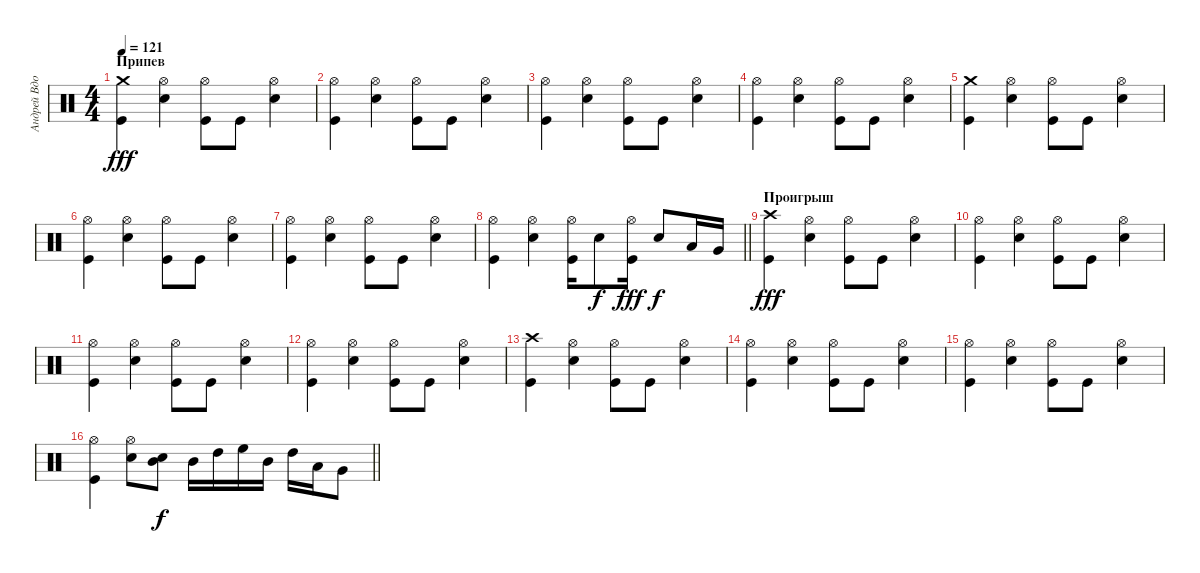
\track ("Андрей Вдовиченко" "Андрей Вдо") {instrument percussion}
\staff {score}
\articulation defaults
\ts (4 4)
\section ("" "Припев")
\tempo 121
\clef neutral
\ks c
("Crash medium (hit)" "Kick (hit)").4{dy fff} ("Hi-Hat (open)" "Electric Snare (hit)").4 ("Hi-Hat (open)" "Kick (hit)").8 "Kick (hit)".8 ("Hi-Hat (open)" "Electric Snare (hit)").4 |
("Hi-Hat (open)" "Kick (hit)").4 ("Hi-Hat (open)" "Electric Snare (hit)").4 ("Hi-Hat (open)" "Kick (hit)").8 "Kick (hit)".8 ("Hi-Hat (open)" "Electric Snare (hit)").4 |
("Hi-Hat (open)" "Kick (hit)").4 ("Hi-Hat (open)" "Electric Snare (hit)").4 ("Hi-Hat (open)" "Kick (hit)").8 "Kick (hit)".8 ("Hi-Hat (open)" "Electric Snare (hit)").4 |
("Hi-Hat (open)" "Kick (hit)").4 ("Hi-Hat (open)" "Electric Snare (hit)").4 ("Hi-Hat (open)" "Kick (hit)").8 "Kick (hit)".8 ("Hi-Hat (open)" "Electric Snare (hit)").4 |
("Crash medium (hit)" "Kick (hit)").4 ("Hi-Hat (open)" "Electric Snare (hit)").4 ("Hi-Hat (open)" "Kick (hit)").8 "Kick (hit)".8 ("Hi-Hat (open)" "Electric Snare (hit)").4 |
("Hi-Hat (open)" "Kick (hit)").4 ("Hi-Hat (open)" "Electric Snare (hit)").4 ("Hi-Hat (open)" "Kick (hit)").8 "Kick (hit)".8 ("Hi-Hat (open)" "Electric Snare (hit)").4 |
("Hi-Hat (open)" "Kick (hit)").4 ("Hi-Hat (open)" "Electric Snare (hit)").4 ("Hi-Hat (open)" "Kick (hit)").8 "Kick (hit)".8 ("Hi-Hat (open)" "Electric Snare (hit)").4 |
\barLineRight lightlight
("Hi-Hat (open)" "Kick (hit)").4 ("Hi-Hat (open)" "Electric Snare (hit)").4 ("Hi-Hat (open)" "Kick (hit)").16 "Electric Snare (hit)".8{dy f} ("Hi-Hat (open)" "Kick (hit)").16{dy fff} "Electric Snare (hit)".8{dy f} "Low Tom (hit)".16 "Very Low Tom (hit)".16 |
\section ("" "Проигрыш")
("Crash high (hit)" "Kick (hit)").4{dy fff} ("Hi-Hat (open)" "Electric Snare (hit)").4 ("Hi-Hat (open)" "Kick (hit)").8 "Kick (hit)".8 ("Hi-Hat (open)" "Electric Snare (hit)").4 |
("Hi-Hat (open)" "Kick (hit)").4 ("Hi-Hat (open)" "Electric Snare (hit)").4 ("Hi-Hat (open)" "Kick (hit)").8 "Kick (hit)".8 ("Hi-Hat (open)" "Electric Snare (hit)").4 |
("Hi-Hat (open)" "Kick (hit)").4 ("Hi-Hat (open)" "Electric Snare (hit)").4 ("Hi-Hat (open)" "Kick (hit)").8 "Kick (hit)".8 ("Hi-Hat (open)" "Electric Snare (hit)").4 |
("Hi-Hat (open)" "Kick (hit)").4 ("Hi-Hat (open)" "Electric Snare (hit)").4 ("Hi-Hat (open)" "Kick (hit)").8 "Kick (hit)".8 ("Hi-Hat (open)" "Electric Snare (hit)").4 |
("Crash high (hit)" "Kick (hit)").4 ("Hi-Hat (open)" "Electric Snare (hit)").4 ("Hi-Hat (open)" "Kick (hit)").8 "Kick (hit)".8 ("Hi-Hat (open)" "Electric Snare (hit)").4 |
("Hi-Hat (open)" "Kick (hit)").4 ("Hi-Hat (open)" "Electric Snare (hit)").4 ("Hi-Hat (open)" "Kick (hit)").8 "Kick (hit)".8 ("Hi-Hat (open)" "Electric Snare (hit)").4 |
("Hi-Hat (open)" "Kick (hit)").4 ("Hi-Hat (open)" "Electric Snare (hit)").4 ("Hi-Hat (open)" "Kick (hit)").8 "Kick (hit)".8 ("Hi-Hat (open)" "Electric Snare (hit)").4 |
\barLineRight lightlight
("Hi-Hat (open)" "Kick (hit)").4 ("Hi-Hat (open)" "Electric Snare (hit)").8 ("Mid Tom (hit)" "Snare (hit) 2").8{dy f} "Mid Tom (hit)".16 "High Tom (hit)".16 "High Floor Tom (hit)".16 "Mid Tom (hit)".16 "High Tom (hit)".16 "Low Tom (hit)".16 "Very Low Tom (hit)".8
